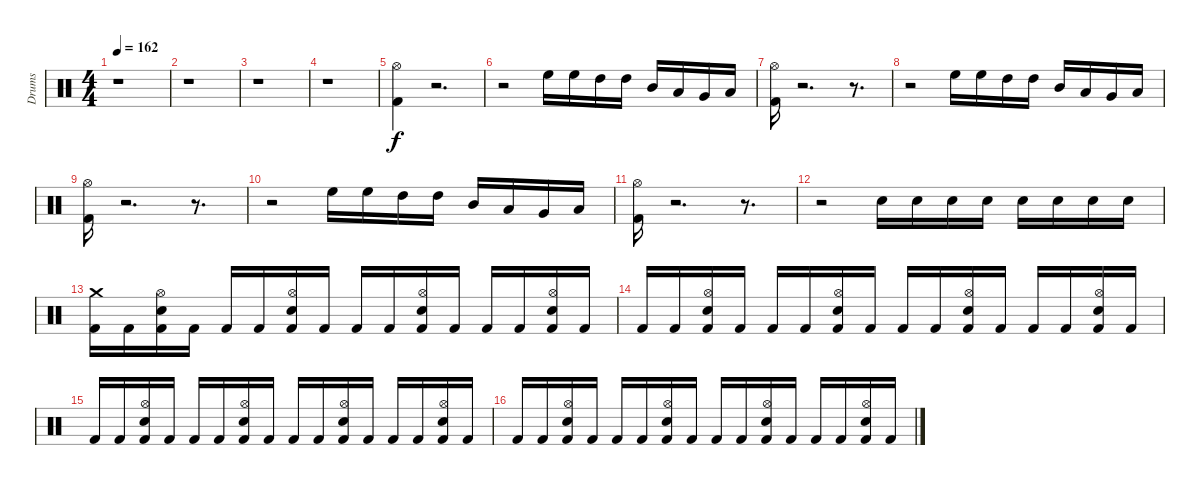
\track ("Drums" "Drums") {instrument percussion}
\staff {score}
\articulation defaults
\ts (4 4)
\tempo 162
\clef neutral
\ks c
r.1{dy f} |
r.1 |
r.1 |
r.1 |
("Kick (hit) 2" "Hi-Hat (open)").4 r.2{d} |
r.2 "High Floor Tom (hit)".16 "High Floor Tom (hit)".16 "High Tom (hit)".16 "High Tom (hit)".16 "Mid Tom (hit)".16 "Low Tom (hit)".16 "Very Low Tom (hit)".16 "Low Floor Tom (hit)".16 |
("Hi-Hat (open)" "Kick (hit) 2").16 r.2{d} r.8{d} |
r.2 "High Floor Tom (hit)".16 "High Floor Tom (hit)".16 "High Tom (hit)".16 "High Tom (hit)".16 "Mid Tom (hit)".16 "Low Tom (hit)".16 "Very Low Tom (hit)".16 "Low Floor Tom (hit)".16 |
("Hi-Hat (open)" "Kick (hit) 2").16 r.2{d} r.8{d} |
r.2 "High Floor Tom (hit)".16 "High Floor Tom (hit)".16 "High Tom (hit)".16 "High Tom (hit)".16 "Mid Tom (hit)".16 "Low Tom (hit)".16 "Very Low Tom (hit)".16 "Low Floor Tom (hit)".16 |
("Hi-Hat (open)" "Kick (hit) 2").16 r.2{d} r.8{d} |
r.2 "Electric Snare (hit)".16 "Electric Snare (hit)".16 "Electric Snare (hit)".16 "Electric Snare (hit)".16 "Electric Snare (hit)".16 "Electric Snare (hit)".16 "Electric Snare (hit)".16 "Electric Snare (hit)".16 |
("Crash medium (hit)" "Kick (hit) 2").16 "Kick (hit) 2".16 ("Hi-Hat (open)" "Electric Snare (hit)" "Kick (hit) 2").16 "Kick (hit) 2".16 "Kick (hit) 2".16 "Kick (hit) 2".16 ("Hi-Hat (open)" "Electric Snare (hit)" "Kick (hit) 2").16 "Kick (hit) 2".16 "Kick (hit) 2".16 "Kick (hit) 2".16 ("Hi-Hat (open)" "Kick (hit) 2" "Electric Snare (hit)").16 "Kick (hit) 2".16 "Kick (hit) 2".16 "Kick (hit) 2".16 ("Hi-Hat (open)" "Kick (hit) 2" "Electric Snare (hit)").16 "Kick (hit) 2".16 |
"Kick (hit) 2".16 "Kick (hit) 2".16 ("Hi-Hat (open)" "Electric Snare (hit)" "Kick (hit) 2").16 "Kick (hit) 2".16 "Kick (hit) 2".16 "Kick (hit) 2".16 ("Hi-Hat (open)" "Electric Snare (hit)" "Kick (hit) 2").16 "Kick (hit) 2".16 "Kick (hit) 2".16 "Kick (hit) 2".16 ("Electric Snare (hit)" "Kick (hit) 2" "Hi-Hat (open)").16 "Kick (hit) 2".16 "Kick (hit) 2".16 "Kick (hit) 2".16 ("Electric Snare (hit)" "Kick (hit) 2" "Hi-Hat (open)").16 "Kick (hit) 2".16 |
"Kick (hit) 2".16 "Kick (hit) 2".16 ("Electric Snare (hit)" "Kick (hit) 2" "Hi-Hat (open)").16 "Kick (hit) 2".16 "Kick (hit) 2".16 "Kick (hit) 2".16 ("Hi-Hat (open)" "Kick (hit) 2" "Electric Snare (hit)").16 "Kick (hit) 2".16 "Kick (hit) 2".16 "Kick (hit) 2".16 ("Hi-Hat (open)" "Kick (hit) 2" "Electric Snare (hit)").16 "Kick (hit) 2".16 "Kick (hit) 2".16 "Kick (hit) 2".16 ("Hi-Hat (open)" "Electric Snare (hit)" "Kick (hit) 2").16 "Kick (hit) 2".16 |
"Kick (hit) 2".16 "Kick (hit) 2".16 ("Hi-Hat (open)" "Electric Snare (hit)" "Kick (hit) 2").16 "Kick (hit) 2".16 "Kick (hit) 2".16 "Kick (hit) 2".16 ("Electric Snare (hit)" "Hi-Hat (open)" "Kick (hit) 2").16 "Kick (hit) 2".16 "Kick (hit) 2".16 "Kick (hit) 2".16 ("Electric Snare (hit)" "Hi-Hat (open)" "Kick (hit) 2").16 "Kick (hit) 2".16 "Kick (hit) 2".16 "Kick (hit) 2".16 ("Electric Snare (hit)" "Kick (hit) 2" "Hi-Hat (open)").16 "Kick (hit) 2".16
